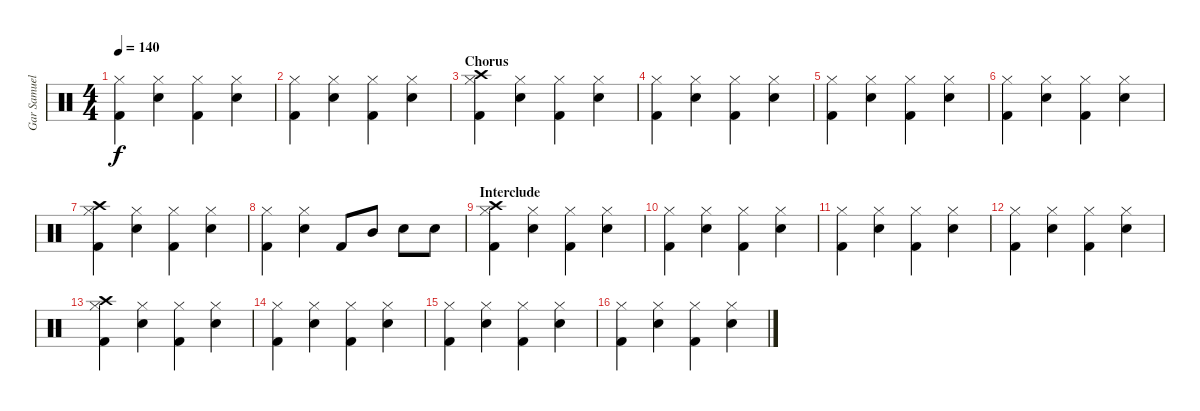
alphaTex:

\track ("Gar Samuelson (Drums)" "Gar Samuel") {instrument percussion}
\staff {score}
\articulation defaults
\ts (4 4)
\tempo 140
\clef neutral
\ks c
("Hi-Hat (closed)" "Kick (hit) 2").4{dy f} ("Electric Snare (hit)" "Hi-Hat (closed)").4 ("Hi-Hat (closed)" "Kick (hit) 2").4 ("Electric Snare (hit)" "Hi-Hat (closed)").4 |
("Hi-Hat (closed)" "Kick (hit) 2").4 ("Electric Snare (hit)" "Hi-Hat (closed)").4 ("Hi-Hat (closed)" "Kick (hit) 2").4 ("Electric Snare (hit)" "Hi-Hat (closed)").4 |
\section ("" "Chorus")
("Crash high (hit)" "Hi-Hat (closed)" "Kick (hit) 2").4 ("Electric Snare (hit)" "Hi-Hat (closed)").4 ("Hi-Hat (closed)" "Kick (hit) 2").4 ("Electric Snare (hit)" "Hi-Hat (closed)").4 |
("Hi-Hat (closed)" "Kick (hit) 2").4 ("Electric Snare (hit)" "Hi-Hat (closed)").4 ("Hi-Hat (closed)" "Kick (hit) 2").4 ("Electric Snare (hit)" "Hi-Hat (closed)").4 |
("Hi-Hat (closed)" "Kick (hit) 2").4 ("Electric Snare (hit)" "Hi-Hat (closed)").4 ("Hi-Hat (closed)" "Kick (hit) 2").4 ("Electric Snare (hit)" "Hi-Hat (closed)").4 |
("Hi-Hat (closed)" "Kick (hit) 2").4 ("Electric Snare (hit)" "Hi-Hat (closed)").4 ("Hi-Hat (closed)" "Kick (hit) 2").4 ("Electric Snare (hit)" "Hi-Hat (closed)").4 |
("Crash high (hit)" "Hi-Hat (closed)" "Kick (hit) 2").4 ("Electric Snare (hit)" "Hi-Hat (closed)").4 ("Hi-Hat (closed)" "Kick (hit) 2").4 ("Electric Snare (hit)" "Hi-Hat (closed)").4 |
("Hi-Hat (closed)" "Kick (hit) 2").4 ("Electric Snare (hit)" "Hi-Hat (closed)").4 "Kick (hit) 2".8 "Mid Tom (hit)".8 "Electric Snare (hit)".8 "Electric Snare (hit)".8 |
\section ("" "Interclude")
("Crash high (hit)" "Hi-Hat (closed)" "Kick (hit) 2").4 ("Electric Snare (hit)" "Hi-Hat (closed)").4 ("Hi-Hat (closed)" "Kick (hit) 2").4 ("Electric Snare (hit)" "Hi-Hat (closed)").4 |
("Hi-Hat (closed)" "Kick (hit) 2").4 ("Electric Snare (hit)" "Hi-Hat (closed)").4 ("Hi-Hat (closed)" "Kick (hit) 2").4 ("Electric Snare (hit)" "Hi-Hat (closed)").4 |
("Hi-Hat (closed)" "Kick (hit) 2").4 ("Electric Snare (hit)" "Hi-Hat (closed)").4 ("Hi-Hat (closed)" "Kick (hit) 2").4 ("Electric Snare (hit)" "Hi-Hat (closed)").4 |
("Hi-Hat (closed)" "Kick (hit) 2").4 ("Electric Snare (hit)" "Hi-Hat (closed)").4 ("Hi-Hat (closed)" "Kick (hit) 2").4 ("Electric Snare (hit)" "Hi-Hat (closed)").4 |
("Crash high (hit)" "Hi-Hat (closed)" "Kick (hit) 2").4 ("Electric Snare (hit)" "Hi-Hat (closed)").4 ("Hi-Hat (closed)" "Kick (hit) 2").4 ("Electric Snare (hit)" "Hi-Hat (closed)").4 |
("Hi-Hat (closed)" "Kick (hit) 2").4 ("Electric Snare (hit)" "Hi-Hat (closed)").4 ("Hi-Hat (closed)" "Kick (hit) 2").4 ("Electric Snare (hit)" "Hi-Hat (closed)").4 |
("Hi-Hat (closed)" "Kick (hit) 2").4 ("Electric Snare (hit)" "Hi-Hat (closed)").4 ("Hi-Hat (closed)" "Kick (hit) 2").4 ("Electric Snare (hit)" "Hi-Hat (closed)").4 |
("Hi-Hat (closed)" "Kick (hit) 2").4 ("Electric Snare (hit)" "Hi-Hat (closed)").4 ("Hi-Hat (closed)" "Kick (hit) 2").4 ("Electric Snare (hit)" "Hi-Hat (closed)").4
